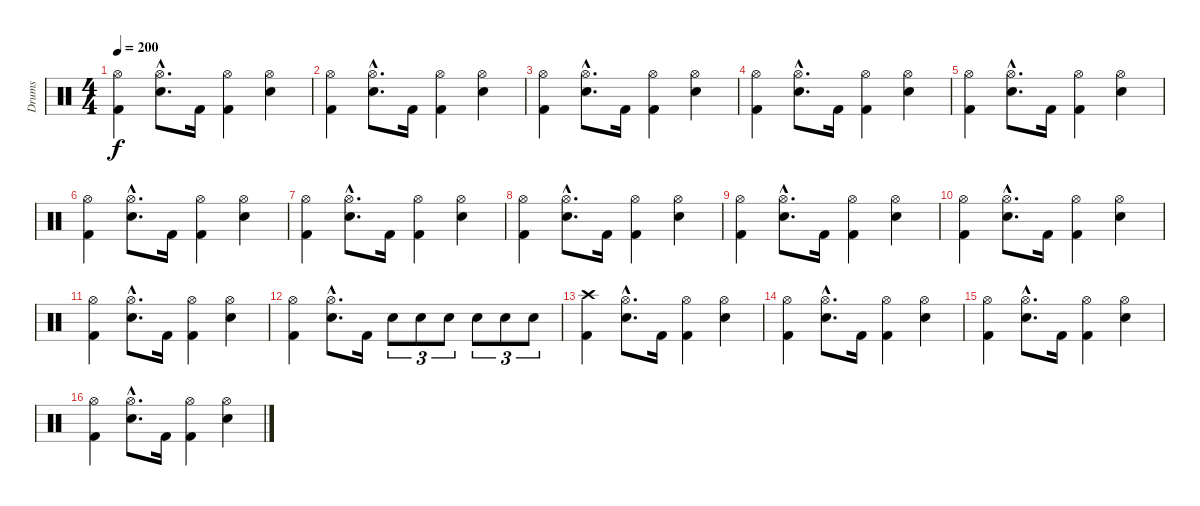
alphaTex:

\track ("Drums" "Drums") {instrument percussion}
\staff {score}
\articulation defaults
\ts (4 4)
\tempo 200
\clef neutral
\ks c
("Hi-Hat (open)" "Kick (hit) 2").4{dy f} ("Hi-Hat (open)"{hac} "Electric Snare (hit)"{hac}).8{d} "Kick (hit) 2".16 ("Hi-Hat (open)" "Kick (hit) 2").4 ("Hi-Hat (open)" "Electric Snare (hit)").4 |
("Hi-Hat (open)" "Kick (hit) 2").4 ("Hi-Hat (open)"{hac} "Electric Snare (hit)"{hac}).8{d} "Kick (hit) 2".16 ("Hi-Hat (open)" "Kick (hit) 2").4 ("Hi-Hat (open)" "Electric Snare (hit)").4 |
("Hi-Hat (open)" "Kick (hit) 2").4 ("Hi-Hat (open)"{hac} "Electric Snare (hit)"{hac}).8{d} "Kick (hit) 2".16 ("Hi-Hat (open)" "Kick (hit) 2").4 ("Hi-Hat (open)" "Electric Snare (hit)").4 |
("Hi-Hat (open)" "Kick (hit) 2").4 ("Hi-Hat (open)"{hac} "Electric Snare (hit)"{hac}).8{d} "Kick (hit) 2".16 ("Hi-Hat (open)" "Kick (hit) 2").4 ("Hi-Hat (open)" "Electric Snare (hit)").4 |
("Hi-Hat (open)" "Kick (hit) 2").4 ("Hi-Hat (open)"{hac} "Electric Snare (hit)"{hac}).8{d} "Kick (hit) 2".16 ("Hi-Hat (open)" "Kick (hit) 2").4 ("Hi-Hat (open)" "Electric Snare (hit)").4 |
("Hi-Hat (open)" "Kick (hit) 2").4 ("Hi-Hat (open)"{hac} "Electric Snare (hit)"{hac}).8{d} "Kick (hit) 2".16 ("Hi-Hat (open)" "Kick (hit) 2").4 ("Hi-Hat (open)" "Electric Snare (hit)").4 |
("Hi-Hat (open)" "Kick (hit) 2").4 ("Hi-Hat (open)"{hac} "Electric Snare (hit)"{hac}).8{d} "Kick (hit) 2".16 ("Hi-Hat (open)" "Kick (hit) 2").4 ("Hi-Hat (open)" "Electric Snare (hit)").4 |
("Hi-Hat (open)" "Kick (hit) 2").4 ("Hi-Hat (open)"{hac} "Electric Snare (hit)"{hac}).8{d} "Kick (hit) 2".16 ("Hi-Hat (open)" "Kick (hit) 2").4 ("Hi-Hat (open)" "Electric Snare (hit)").4 |
("Hi-Hat (open)" "Kick (hit) 2").4 ("Hi-Hat (open)"{hac} "Electric Snare (hit)"{hac}).8{d} "Kick (hit) 2".16 ("Hi-Hat (open)" "Kick (hit) 2").4 ("Hi-Hat (open)" "Electric Snare (hit)").4 |
("Hi-Hat (open)" "Kick (hit) 2").4 ("Hi-Hat (open)"{hac} "Electric Snare (hit)"{hac}).8{d} "Kick (hit) 2".16 ("Hi-Hat (open)" "Kick (hit) 2").4 ("Hi-Hat (open)" "Electric Snare (hit)").4 |
("Hi-Hat (open)" "Kick (hit) 2").4 ("Hi-Hat (open)"{hac} "Electric Snare (hit)"{hac}).8{d} "Kick (hit) 2".16 ("Hi-Hat (open)" "Kick (hit) 2").4 ("Hi-Hat (open)" "Electric Snare (hit)").4 |
("Hi-Hat (open)" "Kick (hit) 2").4 ("Hi-Hat (open)"{hac} "Electric Snare (hit)"{hac}).8{d} "Kick (hit) 2".16 "Electric Snare (hit)".8{tu (3 2)} "Electric Snare (hit)".8{tu (3 2)} "Electric Snare (hit)".8{tu (3 2)} "Electric Snare (hit)".8{tu (3 2)} "Electric Snare (hit)".8{tu (3 2)} "Electric Snare (hit)".8{tu (3 2)} |
("Crash high (hit)" "Kick (hit) 2").4 ("Hi-Hat (open)"{hac} "Electric Snare (hit)"{hac}).8{d} "Kick (hit) 2".16 ("Hi-Hat (open)" "Kick (hit) 2").4 ("Hi-Hat (open)" "Electric Snare (hit)").4 |
("Hi-Hat (open)" "Kick (hit) 2").4 ("Hi-Hat (open)"{hac} "Electric Snare (hit)"{hac}).8{d} "Kick (hit) 2".16 ("Hi-Hat (open)" "Kick (hit) 2").4 ("Hi-Hat (open)" "Electric Snare (hit)").4 |
("Hi-Hat (open)" "Kick (hit) 2").4 ("Hi-Hat (open)"{hac} "Electric Snare (hit)"{hac}).8{d} "Kick (hit) 2".16 ("Hi-Hat (open)" "Kick (hit) 2").4 ("Hi-Hat (open)" "Electric Snare (hit)").4 |
("Hi-Hat (open)" "Kick (hit) 2").4 ("Hi-Hat (open)"{hac} "Electric Snare (hit)"{hac}).8{d} "Kick (hit) 2".16 ("Hi-Hat (open)" "Kick (hit) 2").4 ("Hi-Hat (open)" "Electric Snare (hit)").4
